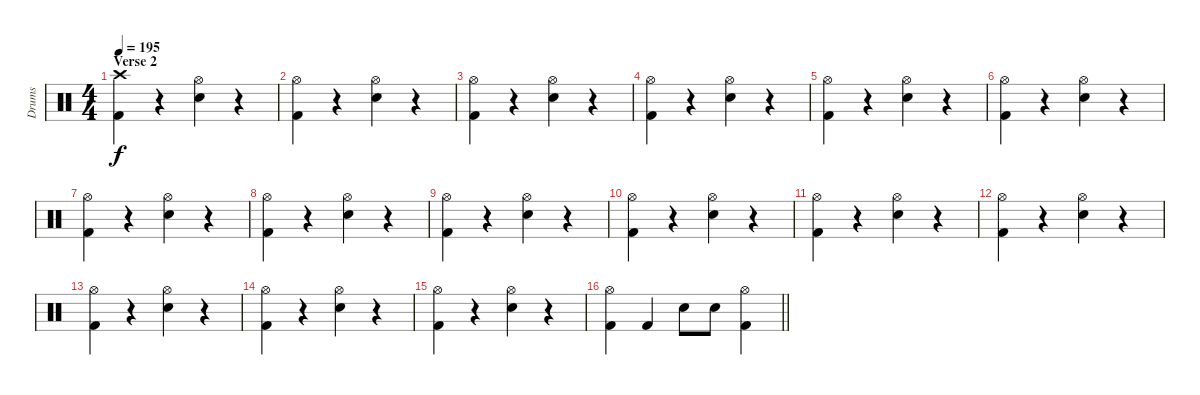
\track ("Drums" "Drums") {instrument percussion}
\staff {score}
\articulation defaults
\ts (4 4)
\section ("" "Verse 2")
\tempo 195
\clef neutral
\ks c
("Crash high (hit)" "Kick (hit) 2").4{dy f} r.4 ("Hi-Hat (open)" "Electric Snare (hit)").4 r.4 |
("Hi-Hat (open)" "Kick (hit) 2").4 r.4 ("Hi-Hat (open)" "Electric Snare (hit)").4 r.4 |
("Hi-Hat (open)" "Kick (hit) 2").4 r.4 ("Hi-Hat (open)" "Electric Snare (hit)").4 r.4 |
("Hi-Hat (open)" "Kick (hit) 2").4 r.4 ("Hi-Hat (open)" "Electric Snare (hit)").4 r.4 |
("Hi-Hat (open)" "Kick (hit) 2").4 r.4 ("Hi-Hat (open)" "Electric Snare (hit)").4 r.4 |
("Hi-Hat (open)" "Kick (hit) 2").4 r.4 ("Hi-Hat (open)" "Electric Snare (hit)").4 r.4 |
("Hi-Hat (open)" "Kick (hit) 2").4 r.4 ("Hi-Hat (open)" "Electric Snare (hit)").4 r.4 |
("Hi-Hat (open)" "Kick (hit) 2").4 r.4 ("Hi-Hat (open)" "Electric Snare (hit)").4 r.4 |
("Hi-Hat (open)" "Kick (hit) 2").4 r.4 ("Hi-Hat (open)" "Electric Snare (hit)").4 r.4 |
("Hi-Hat (open)" "Kick (hit) 2").4 r.4 ("Hi-Hat (open)" "Electric Snare (hit)").4 r.4 |
("Hi-Hat (open)" "Kick (hit) 2").4 r.4 ("Hi-Hat (open)" "Electric Snare (hit)").4 r.4 |
("Hi-Hat (open)" "Kick (hit) 2").4 r.4 ("Hi-Hat (open)" "Electric Snare (hit)").4 r.4 |
("Hi-Hat (open)" "Kick (hit) 2").4 r.4 ("Hi-Hat (open)" "Electric Snare (hit)").4 r.4 |
("Hi-Hat (open)" "Kick (hit) 2").4 r.4 ("Hi-Hat (open)" "Electric Snare (hit)").4 r.4 |
("Hi-Hat (open)" "Kick (hit) 2").4 r.4 ("Hi-Hat (open)" "Electric Snare (hit)").4 r.4 |
\barLineRight lightlight
("Hi-Hat (open)" "Kick (hit) 2").4 "Kick (hit) 2".4 "Electric Snare (hit)".8 "Electric Snare (hit)".8 ("Hi-Hat (open)" "Kick (hit) 2").4
